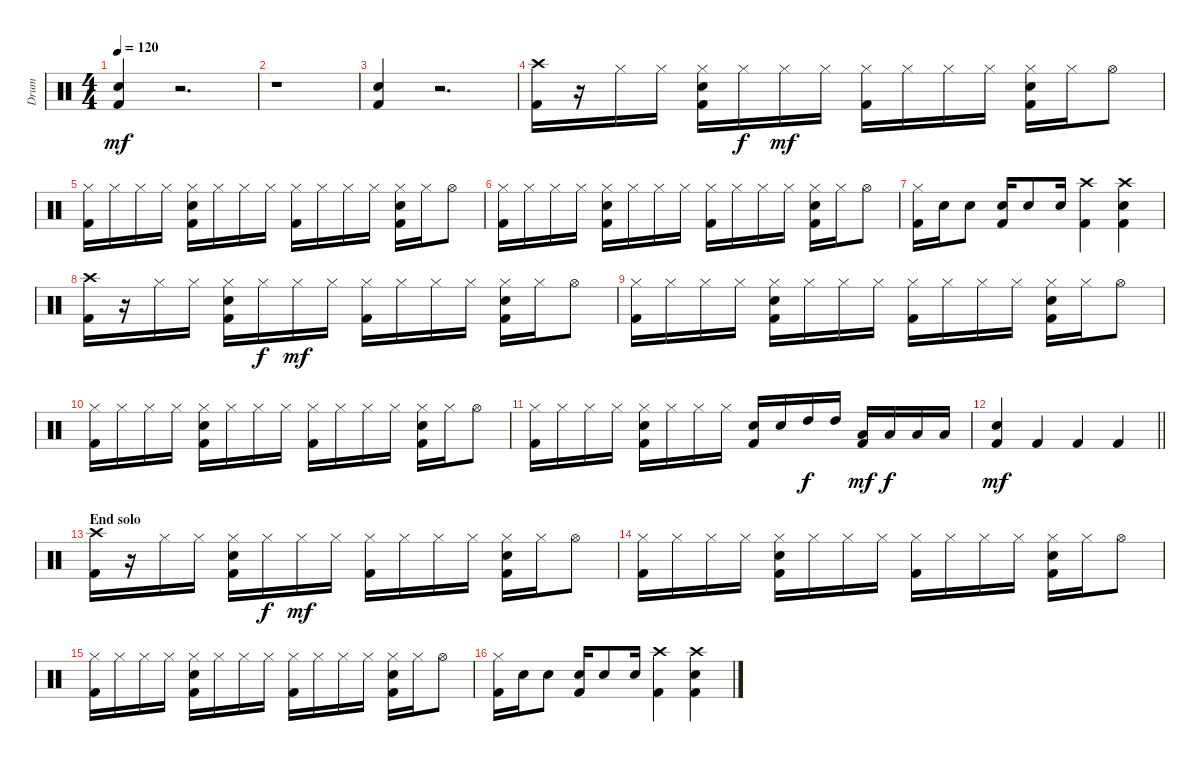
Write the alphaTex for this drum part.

\track ("Drum" "Drum") {instrument percussion}
\staff {score}
\articulation defaults
\ts (4 4)
\tempo 120
\clef neutral
\ks c
("Snare (hit) 2" "Kick (hit) 2").4{dy mf} r.2{d} |
r.1 |
("Snare (hit) 2" "Kick (hit) 2").4 r.2{d} |
("Crash high (hit)" "Kick (hit) 2").16 r.16 "Hi-Hat (closed)".16 "Hi-Hat (closed)".16 ("Hi-Hat (closed)" "Snare (hit) 2" "Kick (hit) 2").16 "Hi-Hat (closed)".16{dy f} "Hi-Hat (closed)".16{dy mf} "Hi-Hat (closed)".16 ("Hi-Hat (closed)" "Kick (hit) 2").16 "Hi-Hat (closed)".16 "Hi-Hat (closed)".16 "Hi-Hat (closed)".16 ("Hi-Hat (closed)" "Snare (hit) 2" "Kick (hit) 2").16 "Hi-Hat (closed)".16 "Hi-Hat (open)".8 |
("Hi-Hat (closed)" "Kick (hit) 2").16 "Hi-Hat (closed)".16 "Hi-Hat (closed)".16 "Hi-Hat (closed)".16 ("Hi-Hat (closed)" "Snare (hit) 2" "Kick (hit) 2").16 "Hi-Hat (closed)".16 "Hi-Hat (closed)".16 "Hi-Hat (closed)".16 ("Hi-Hat (closed)" "Kick (hit) 2").16 "Hi-Hat (closed)".16 "Hi-Hat (closed)".16 "Hi-Hat (closed)".16 ("Hi-Hat (closed)" "Snare (hit) 2" "Kick (hit) 2").16 "Hi-Hat (closed)".16 "Hi-Hat (open)".8 |
("Hi-Hat (closed)" "Kick (hit) 2").16 "Hi-Hat (closed)".16 "Hi-Hat (closed)".16 "Hi-Hat (closed)".16 ("Hi-Hat (closed)" "Snare (hit) 2" "Kick (hit) 2").16 "Hi-Hat (closed)".16 "Hi-Hat (closed)".16 "Hi-Hat (closed)".16 ("Hi-Hat (closed)" "Kick (hit) 2").16 "Hi-Hat (closed)".16 "Hi-Hat (closed)".16 "Hi-Hat (closed)".16 ("Hi-Hat (closed)" "Snare (hit) 2" "Kick (hit) 2").16 "Hi-Hat (closed)".16 "Hi-Hat (open)".8 |
("Hi-Hat (closed)" "Kick (hit) 2").16 "Snare (hit) 2".16 "Snare (hit) 2".8 ("Snare (hit) 2" "Kick (hit) 2").16 "Snare (hit) 2".8 "Snare (hit) 2".16 ("Crash high (hit)" "Kick (hit) 2").4 ("Crash high (hit)" "Snare (hit) 2" "Kick (hit) 2").4 |
("Crash high (hit)" "Kick (hit) 2").16 r.16 "Hi-Hat (closed)".16 "Hi-Hat (closed)".16 ("Hi-Hat (closed)" "Snare (hit) 2" "Kick (hit) 2").16 "Hi-Hat (closed)".16{dy f} "Hi-Hat (closed)".16{dy mf} "Hi-Hat (closed)".16 ("Hi-Hat (closed)" "Kick (hit) 2").16 "Hi-Hat (closed)".16 "Hi-Hat (closed)".16 "Hi-Hat (closed)".16 ("Hi-Hat (closed)" "Snare (hit) 2" "Kick (hit) 2").16 "Hi-Hat (closed)".16 "Hi-Hat (open)".8 |
("Hi-Hat (closed)" "Kick (hit) 2").16 "Hi-Hat (closed)".16 "Hi-Hat (closed)".16 "Hi-Hat (closed)".16 ("Hi-Hat (closed)" "Snare (hit) 2" "Kick (hit) 2").16 "Hi-Hat (closed)".16 "Hi-Hat (closed)".16 "Hi-Hat (closed)".16 ("Hi-Hat (closed)" "Kick (hit) 2").16 "Hi-Hat (closed)".16 "Hi-Hat (closed)".16 "Hi-Hat (closed)".16 ("Hi-Hat (closed)" "Snare (hit) 2" "Kick (hit) 2").16 "Hi-Hat (closed)".16 "Hi-Hat (open)".8 |
("Hi-Hat (closed)" "Kick (hit) 2").16 "Hi-Hat (closed)".16 "Hi-Hat (closed)".16 "Hi-Hat (closed)".16 ("Hi-Hat (closed)" "Snare (hit) 2" "Kick (hit) 2").16 "Hi-Hat (closed)".16 "Hi-Hat (closed)".16 "Hi-Hat (closed)".16 ("Hi-Hat (closed)" "Kick (hit) 2").16 "Hi-Hat (closed)".16 "Hi-Hat (closed)".16 "Hi-Hat (closed)".16 ("Hi-Hat (closed)" "Snare (hit) 2" "Kick (hit) 2").16 "Hi-Hat (closed)".16 "Hi-Hat (open)".8 |
("Hi-Hat (closed)" "Kick (hit) 2").16 "Hi-Hat (closed)".16 "Hi-Hat (closed)".16 "Hi-Hat (closed)".16 ("Hi-Hat (closed)" "Snare (hit) 2" "Kick (hit) 2").16 "Hi-Hat (closed)".16 "Hi-Hat (closed)".16 "Hi-Hat (closed)".16 ("Snare (hit) 2" "Kick (hit) 2").16 "Snare (hit) 2".16 "High Tom (hit)".16{dy f} "High Tom (hit)".16 ("Low Tom (hit)" "Kick (hit) 2").16{dy mf} "Low Tom (hit)".16{dy f} "Low Floor Tom (hit)".16 "Low Floor Tom (hit)".16 |
\barLineRight lightlight
("Snare (hit) 2" "Kick (hit) 2").4{dy mf} "Kick (hit) 2".4 "Kick (hit) 2".4 "Kick (hit) 2".4 |
\section ("" "End solo")
("Crash high (hit)" "Kick (hit) 2").16 r.16 "Hi-Hat (closed)".16 "Hi-Hat (closed)".16 ("Hi-Hat (closed)" "Snare (hit) 2" "Kick (hit) 2").16 "Hi-Hat (closed)".16{dy f} "Hi-Hat (closed)".16{dy mf} "Hi-Hat (closed)".16 ("Hi-Hat (closed)" "Kick (hit) 2").16 "Hi-Hat (closed)".16 "Hi-Hat (closed)".16 "Hi-Hat (closed)".16 ("Hi-Hat (closed)" "Snare (hit) 2" "Kick (hit) 2").16 "Hi-Hat (closed)".16 "Hi-Hat (open)".8 |
("Hi-Hat (closed)" "Kick (hit) 2").16 "Hi-Hat (closed)".16 "Hi-Hat (closed)".16 "Hi-Hat (closed)".16 ("Hi-Hat (closed)" "Snare (hit) 2" "Kick (hit) 2").16 "Hi-Hat (closed)".16 "Hi-Hat (closed)".16 "Hi-Hat (closed)".16 ("Hi-Hat (closed)" "Kick (hit) 2").16 "Hi-Hat (closed)".16 "Hi-Hat (closed)".16 "Hi-Hat (closed)".16 ("Hi-Hat (closed)" "Snare (hit) 2" "Kick (hit) 2").16 "Hi-Hat (closed)".16 "Hi-Hat (open)".8 |
("Hi-Hat (closed)" "Kick (hit) 2").16 "Hi-Hat (closed)".16 "Hi-Hat (closed)".16 "Hi-Hat (closed)".16 ("Hi-Hat (closed)" "Snare (hit) 2" "Kick (hit) 2").16 "Hi-Hat (closed)".16 "Hi-Hat (closed)".16 "Hi-Hat (closed)".16 ("Hi-Hat (closed)" "Kick (hit) 2").16 "Hi-Hat (closed)".16 "Hi-Hat (closed)".16 "Hi-Hat (closed)".16 ("Hi-Hat (closed)" "Snare (hit) 2" "Kick (hit) 2").16 "Hi-Hat (closed)".16 "Hi-Hat (open)".8 |
("Hi-Hat (closed)" "Kick (hit) 2").16 "Snare (hit) 2".16 "Snare (hit) 2".8 ("Snare (hit) 2" "Kick (hit) 2").16 "Snare (hit) 2".8 "Snare (hit) 2".16 ("Crash high (hit)" "Kick (hit) 2").4 ("Crash high (hit)" "Snare (hit) 2" "Kick (hit) 2").4
